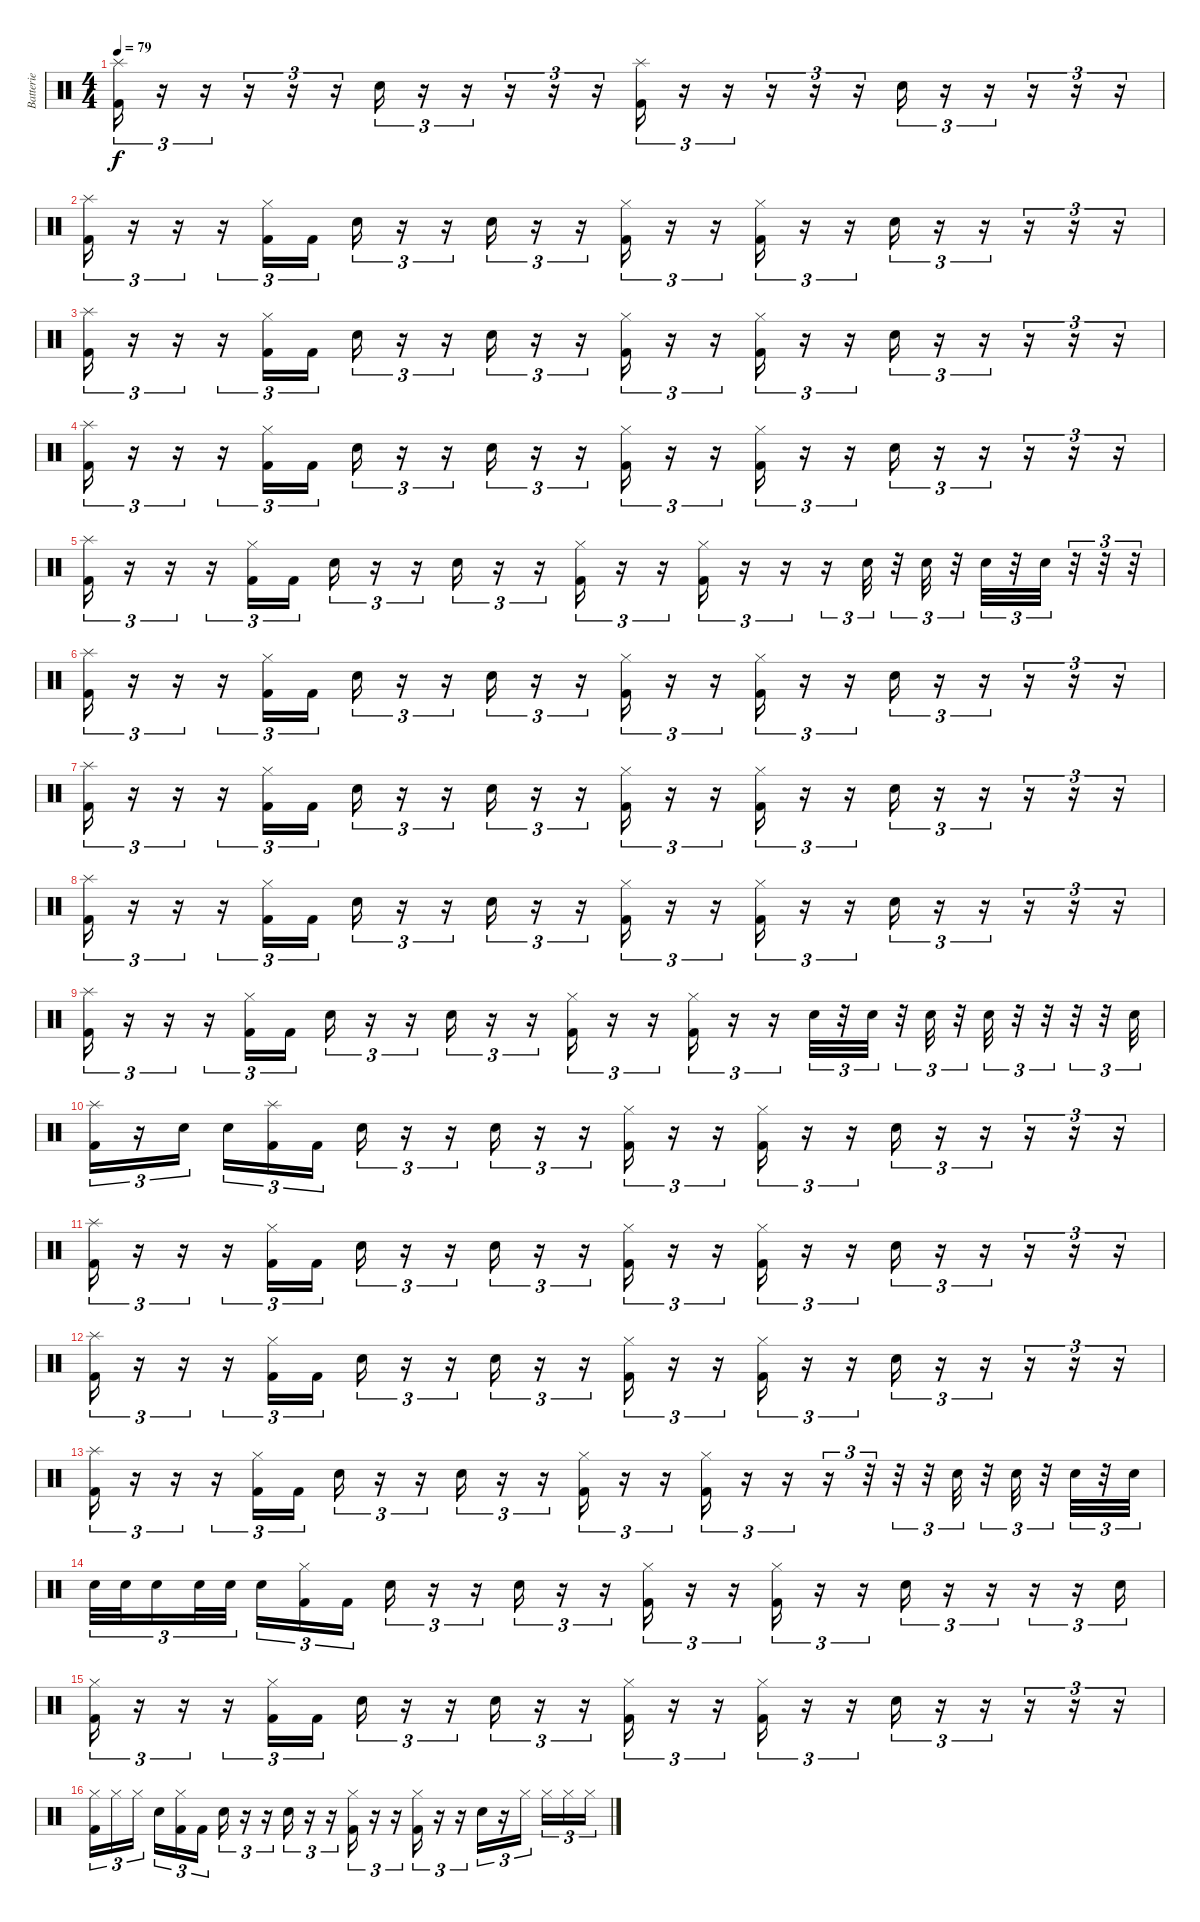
\track ("Batterie" "Batterie") {instrument percussion}
\staff {score}
\articulation defaults
\ts (4 4)
\tempo 79
\clef neutral
\ks c
("Splash (hit)" "Kick (hit) 2").16{tu (3 2) dy f} r.16{tu (3 2)} r.16{tu (3 2)} r.16{tu (3 2)} r.16{tu (3 2)} r.16{tu (3 2)} "Snare (hit) 2".16{tu (3 2)} r.16{tu (3 2)} r.16{tu (3 2)} r.16{tu (3 2)} r.16{tu (3 2)} r.16{tu (3 2)} ("Splash (hit)" "Kick (hit) 2").16{tu (3 2)} r.16{tu (3 2)} r.16{tu (3 2)} r.16{tu (3 2)} r.16{tu (3 2)} r.16{tu (3 2)} "Snare (hit) 2".16{tu (3 2)} r.16{tu (3 2)} r.16{tu (3 2)} r.16{tu (3 2)} r.16{tu (3 2)} r.16{tu (3 2)} |
("Splash (hit)" "Kick (hit) 2").16{tu (3 2)} r.16{tu (3 2)} r.16{tu (3 2)} r.16{tu (3 2)} ("Hi-Hat (closed)" "Kick (hit) 2").16{tu (3 2)} "Kick (hit) 2".16{tu (3 2)} "Snare (hit) 2".16{tu (3 2)} r.16{tu (3 2)} r.16{tu (3 2)} "Snare (hit) 2".16{tu (3 2)} r.16{tu (3 2)} r.16{tu (3 2)} ("Hi-Hat (closed)" "Kick (hit) 2").16{tu (3 2)} r.16{tu (3 2)} r.16{tu (3 2)} ("Hi-Hat (closed)" "Kick (hit) 2").16{tu (3 2)} r.16{tu (3 2)} r.16{tu (3 2)} "Snare (hit) 2".16{tu (3 2)} r.16{tu (3 2)} r.16{tu (3 2)} r.16{tu (3 2)} r.16{tu (3 2)} r.16{tu (3 2)} |
("Splash (hit)" "Kick (hit) 2").16{tu (3 2)} r.16{tu (3 2)} r.16{tu (3 2)} r.16{tu (3 2)} ("Hi-Hat (closed)" "Kick (hit) 2").16{tu (3 2)} "Kick (hit) 2".16{tu (3 2)} "Snare (hit) 2".16{tu (3 2)} r.16{tu (3 2)} r.16{tu (3 2)} "Snare (hit) 2".16{tu (3 2)} r.16{tu (3 2)} r.16{tu (3 2)} ("Hi-Hat (closed)" "Kick (hit) 2").16{tu (3 2)} r.16{tu (3 2)} r.16{tu (3 2)} ("Hi-Hat (closed)" "Kick (hit) 2").16{tu (3 2)} r.16{tu (3 2)} r.16{tu (3 2)} "Snare (hit) 2".16{tu (3 2)} r.16{tu (3 2)} r.16{tu (3 2)} r.16{tu (3 2)} r.16{tu (3 2)} r.16{tu (3 2)} |
("Splash (hit)" "Kick (hit) 2").16{tu (3 2)} r.16{tu (3 2)} r.16{tu (3 2)} r.16{tu (3 2)} ("Hi-Hat (closed)" "Kick (hit) 2").16{tu (3 2)} "Kick (hit) 2".16{tu (3 2)} "Snare (hit) 2".16{tu (3 2)} r.16{tu (3 2)} r.16{tu (3 2)} "Snare (hit) 2".16{tu (3 2)} r.16{tu (3 2)} r.16{tu (3 2)} ("Hi-Hat (closed)" "Kick (hit) 2").16{tu (3 2)} r.16{tu (3 2)} r.16{tu (3 2)} ("Hi-Hat (closed)" "Kick (hit) 2").16{tu (3 2)} r.16{tu (3 2)} r.16{tu (3 2)} "Snare (hit) 2".16{tu (3 2)} r.16{tu (3 2)} r.16{tu (3 2)} r.16{tu (3 2)} r.16{tu (3 2)} r.16{tu (3 2)} |
("Splash (hit)" "Kick (hit) 2").16{tu (3 2)} r.16{tu (3 2)} r.16{tu (3 2)} r.16{tu (3 2)} ("Hi-Hat (closed)" "Kick (hit) 2").16{tu (3 2)} "Kick (hit) 2".16{tu (3 2)} "Snare (hit) 2".16{tu (3 2)} r.16{tu (3 2)} r.16{tu (3 2)} "Snare (hit) 2".16{tu (3 2)} r.16{tu (3 2)} r.16{tu (3 2)} ("Hi-Hat (closed)" "Kick (hit) 2").16{tu (3 2)} r.16{tu (3 2)} r.16{tu (3 2)} ("Hi-Hat (closed)" "Kick (hit) 2").16{tu (3 2)} r.16{tu (3 2)} r.16{tu (3 2)} r.16{tu (3 2)} "Snare (hit) 2".32{tu (3 2)} r.32{tu (3 2)} "Snare (hit) 2".32{tu (3 2)} r.32{tu (3 2)} "Snare (hit) 2".32{tu (3 2)} r.32{tu (3 2)} "Snare (hit) 2".32{tu (3 2)} r.32{tu (3 2)} r.32{tu (3 2)} r.32{tu (3 2)} |
("Splash (hit)" "Kick (hit) 2").16{tu (3 2)} r.16{tu (3 2)} r.16{tu (3 2)} r.16{tu (3 2)} ("Hi-Hat (closed)" "Kick (hit) 2").16{tu (3 2)} "Kick (hit) 2".16{tu (3 2)} "Snare (hit) 2".16{tu (3 2)} r.16{tu (3 2)} r.16{tu (3 2)} "Snare (hit) 2".16{tu (3 2)} r.16{tu (3 2)} r.16{tu (3 2)} ("Hi-Hat (closed)" "Kick (hit) 2").16{tu (3 2)} r.16{tu (3 2)} r.16{tu (3 2)} ("Hi-Hat (closed)" "Kick (hit) 2").16{tu (3 2)} r.16{tu (3 2)} r.16{tu (3 2)} "Snare (hit) 2".16{tu (3 2)} r.16{tu (3 2)} r.16{tu (3 2)} r.16{tu (3 2)} r.16{tu (3 2)} r.16{tu (3 2)} |
("Splash (hit)" "Kick (hit) 2").16{tu (3 2)} r.16{tu (3 2)} r.16{tu (3 2)} r.16{tu (3 2)} ("Hi-Hat (closed)" "Kick (hit) 2").16{tu (3 2)} "Kick (hit) 2".16{tu (3 2)} "Snare (hit) 2".16{tu (3 2)} r.16{tu (3 2)} r.16{tu (3 2)} "Snare (hit) 2".16{tu (3 2)} r.16{tu (3 2)} r.16{tu (3 2)} ("Hi-Hat (closed)" "Kick (hit) 2").16{tu (3 2)} r.16{tu (3 2)} r.16{tu (3 2)} ("Hi-Hat (closed)" "Kick (hit) 2").16{tu (3 2)} r.16{tu (3 2)} r.16{tu (3 2)} "Snare (hit) 2".16{tu (3 2)} r.16{tu (3 2)} r.16{tu (3 2)} r.16{tu (3 2)} r.16{tu (3 2)} r.16{tu (3 2)} |
("Splash (hit)" "Kick (hit) 2").16{tu (3 2)} r.16{tu (3 2)} r.16{tu (3 2)} r.16{tu (3 2)} ("Hi-Hat (closed)" "Kick (hit) 2").16{tu (3 2)} "Kick (hit) 2".16{tu (3 2)} "Snare (hit) 2".16{tu (3 2)} r.16{tu (3 2)} r.16{tu (3 2)} "Snare (hit) 2".16{tu (3 2)} r.16{tu (3 2)} r.16{tu (3 2)} ("Hi-Hat (closed)" "Kick (hit) 2").16{tu (3 2)} r.16{tu (3 2)} r.16{tu (3 2)} ("Hi-Hat (closed)" "Kick (hit) 2").16{tu (3 2)} r.16{tu (3 2)} r.16{tu (3 2)} "Snare (hit) 2".16{tu (3 2)} r.16{tu (3 2)} r.16{tu (3 2)} r.16{tu (3 2)} r.16{tu (3 2)} r.16{tu (3 2)} |
("Splash (hit)" "Kick (hit) 2").16{tu (3 2)} r.16{tu (3 2)} r.16{tu (3 2)} r.16{tu (3 2)} ("Hi-Hat (closed)" "Kick (hit) 2").16{tu (3 2)} "Kick (hit) 2".16{tu (3 2)} "Snare (hit) 2".16{tu (3 2)} r.16{tu (3 2)} r.16{tu (3 2)} "Snare (hit) 2".16{tu (3 2)} r.16{tu (3 2)} r.16{tu (3 2)} ("Hi-Hat (closed)" "Kick (hit) 2").16{tu (3 2)} r.16{tu (3 2)} r.16{tu (3 2)} ("Hi-Hat (closed)" "Kick (hit) 2").16{tu (3 2)} r.16{tu (3 2)} r.16{tu (3 2)} "Snare (hit) 2".32{tu (3 2)} r.32{tu (3 2)} "Snare (hit) 2".32{tu (3 2)} r.32{tu (3 2)} "Snare (hit) 2".32{tu (3 2)} r.32{tu (3 2)} "Snare (hit) 2".32{tu (3 2)} r.32{tu (3 2)} r.32{tu (3 2)} r.32{tu (3 2)} r.32{tu (3 2)} "Snare (hit)".32{tu (3 2)} |
("Splash (hit)" "Kick (hit) 2").16{tu (3 2)} r.16{tu (3 2)} "Snare (hit) 2".16{tu (3 2)} "Snare (hit) 2".16{tu (3 2)} ("Splash (hit)" "Kick (hit) 2").16{tu (3 2)} "Kick (hit) 2".16{tu (3 2)} "Snare (hit) 2".16{tu (3 2)} r.16{tu (3 2)} r.16{tu (3 2)} "Snare (hit) 2".16{tu (3 2)} r.16{tu (3 2)} r.16{tu (3 2)} ("Hi-Hat (closed)" "Kick (hit) 2").16{tu (3 2)} r.16{tu (3 2)} r.16{tu (3 2)} ("Hi-Hat (closed)" "Kick (hit) 2").16{tu (3 2)} r.16{tu (3 2)} r.16{tu (3 2)} "Snare (hit) 2".16{tu (3 2)} r.16{tu (3 2)} r.16{tu (3 2)} r.16{tu (3 2)} r.16{tu (3 2)} r.16{tu (3 2)} |
("Splash (hit)" "Kick (hit) 2").16{tu (3 2)} r.16{tu (3 2)} r.16{tu (3 2)} r.16{tu (3 2)} ("Hi-Hat (closed)" "Kick (hit) 2").16{tu (3 2)} "Kick (hit) 2".16{tu (3 2)} "Snare (hit) 2".16{tu (3 2)} r.16{tu (3 2)} r.16{tu (3 2)} "Snare (hit) 2".16{tu (3 2)} r.16{tu (3 2)} r.16{tu (3 2)} ("Hi-Hat (closed)" "Kick (hit) 2").16{tu (3 2)} r.16{tu (3 2)} r.16{tu (3 2)} ("Hi-Hat (closed)" "Kick (hit) 2").16{tu (3 2)} r.16{tu (3 2)} r.16{tu (3 2)} "Snare (hit) 2".16{tu (3 2)} r.16{tu (3 2)} r.16{tu (3 2)} r.16{tu (3 2)} r.16{tu (3 2)} r.16{tu (3 2)} |
("Splash (hit)" "Kick (hit) 2").16{tu (3 2)} r.16{tu (3 2)} r.16{tu (3 2)} r.16{tu (3 2)} ("Hi-Hat (closed)" "Kick (hit) 2").16{tu (3 2)} "Kick (hit) 2".16{tu (3 2)} "Snare (hit) 2".16{tu (3 2)} r.16{tu (3 2)} r.16{tu (3 2)} "Snare (hit) 2".16{tu (3 2)} r.16{tu (3 2)} r.16{tu (3 2)} ("Hi-Hat (closed)" "Kick (hit) 2").16{tu (3 2)} r.16{tu (3 2)} r.16{tu (3 2)} ("Hi-Hat (closed)" "Kick (hit) 2").16{tu (3 2)} r.16{tu (3 2)} r.16{tu (3 2)} "Snare (hit) 2".16{tu (3 2)} r.16{tu (3 2)} r.16{tu (3 2)} r.16{tu (3 2)} r.16{tu (3 2)} r.16{tu (3 2)} |
("Splash (hit)" "Kick (hit) 2").16{tu (3 2)} r.16{tu (3 2)} r.16{tu (3 2)} r.16{tu (3 2)} ("Hi-Hat (closed)" "Kick (hit) 2").16{tu (3 2)} "Kick (hit) 2".16{tu (3 2)} "Snare (hit) 2".16{tu (3 2)} r.16{tu (3 2)} r.16{tu (3 2)} "Snare (hit) 2".16{tu (3 2)} r.16{tu (3 2)} r.16{tu (3 2)} ("Hi-Hat (closed)" "Kick (hit) 2").16{tu (3 2)} r.16{tu (3 2)} r.16{tu (3 2)} ("Hi-Hat (closed)" "Kick (hit) 2").16{tu (3 2)} r.16{tu (3 2)} r.16{tu (3 2)} r.16{tu (3 2)} r.32{tu (3 2)} r.32{tu (3 2)} r.32{tu (3 2)} "Snare (hit) 2".32{tu (3 2)} r.32{tu (3 2)} "Snare (hit) 2".32{tu (3 2)} r.32{tu (3 2)} "Snare (hit) 2".32{tu (3 2)} r.32{tu (3 2)} "Snare (hit) 2".32{tu (3 2)} |
"Snare (hit) 2".32{tu (3 2)} "Snare (hit) 2".32{tu (3 2)} "Snare (hit) 2".16{tu (3 2)} "Snare (hit) 2".32{tu (3 2)} "Snare (hit) 2".32{tu (3 2)} "Snare (hit) 2".16{tu (3 2)} ("Hi-Hat (closed)" "Kick (hit) 2").16{tu (3 2)} "Kick (hit) 2".16{tu (3 2)} "Snare (hit) 2".16{tu (3 2)} r.16{tu (3 2)} r.16{tu (3 2)} "Snare (hit) 2".16{tu (3 2)} r.16{tu (3 2)} r.16{tu (3 2)} ("Hi-Hat (closed)" "Kick (hit) 2").16{tu (3 2)} r.16{tu (3 2)} r.16{tu (3 2)} ("Hi-Hat (closed)" "Kick (hit) 2").16{tu (3 2)} r.16{tu (3 2)} r.16{tu (3 2)} "Snare (hit) 2".16{tu (3 2)} r.16{tu (3 2)} r.16{tu (3 2)} r.16{tu (3 2)} r.16{tu (3 2)} "Snare (hit) 2".16{tu (3 2)} |
("Hi-Hat (closed)" "Kick (hit) 2").16{tu (3 2)} r.16{tu (3 2)} r.16{tu (3 2)} r.16{tu (3 2)} ("Hi-Hat (closed)" "Kick (hit) 2").16{tu (3 2)} "Kick (hit) 2".16{tu (3 2)} "Snare (hit) 2".16{tu (3 2)} r.16{tu (3 2)} r.16{tu (3 2)} "Snare (hit) 2".16{tu (3 2)} r.16{tu (3 2)} r.16{tu (3 2)} ("Hi-Hat (closed)" "Kick (hit) 2").16{tu (3 2)} r.16{tu (3 2)} r.16{tu (3 2)} ("Hi-Hat (closed)" "Kick (hit) 2").16{tu (3 2)} r.16{tu (3 2)} r.16{tu (3 2)} "Snare (hit) 2".16{tu (3 2)} r.16{tu (3 2)} r.16{tu (3 2)} r.16{tu (3 2)} r.16{tu (3 2)} r.16{tu (3 2)} |
("Hi-Hat (closed)" "Kick (hit) 2").16{tu (3 2)} "Hi-Hat (closed)".16{tu (3 2)} "Hi-Hat (closed)".16{tu (3 2)} "Snare (hit) 2".16{tu (3 2)} ("Hi-Hat (closed)" "Kick (hit) 2").16{tu (3 2)} "Kick (hit) 2".16{tu (3 2)} "Snare (hit) 2".16{tu (3 2)} r.16{tu (3 2)} r.16{tu (3 2)} "Snare (hit) 2".16{tu (3 2)} r.16{tu (3 2)} r.16{tu (3 2)} ("Hi-Hat (closed)" "Kick (hit) 2").16{tu (3 2)} r.16{tu (3 2)} r.16{tu (3 2)} ("Hi-Hat (closed)" "Kick (hit) 2").16{tu (3 2)} r.16{tu (3 2)} r.16{tu (3 2)} "Snare (hit) 2".16{tu (3 2)} r.16{tu (3 2)} "Hi-Hat (closed)".16{tu (3 2)} "Hi-Hat (closed)".16{tu (3 2)} "Hi-Hat (closed)".16{tu (3 2)} "Hi-Hat (closed)".16{tu (3 2)}
